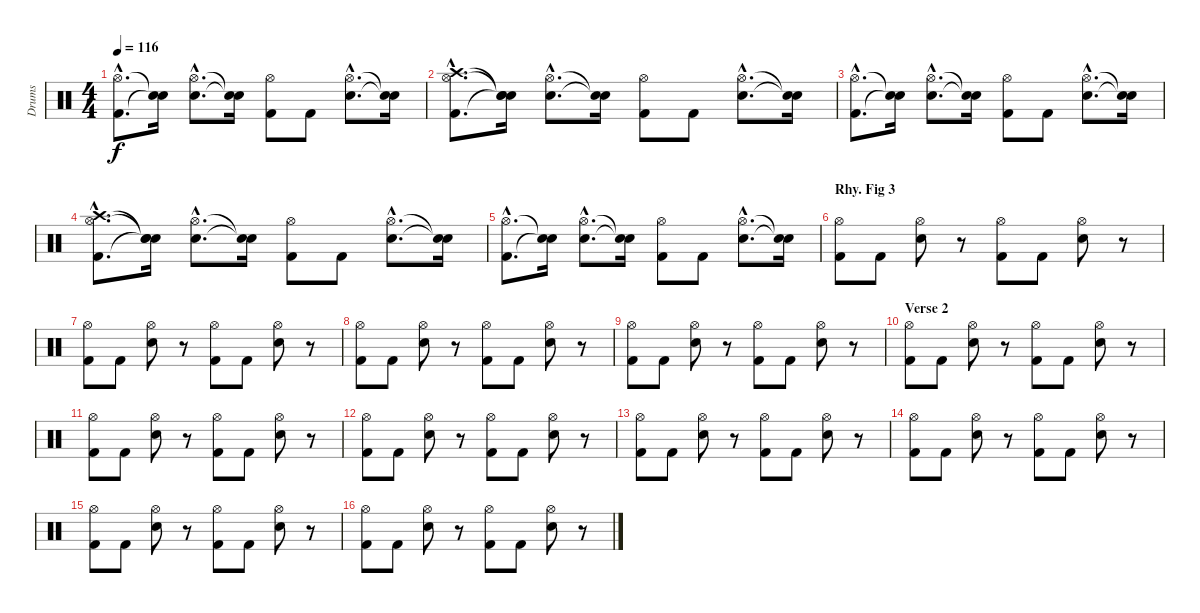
\track ("Drums" "Drums") {instrument percussion}
\staff {score}
\articulation defaults
\ts (4 4)
\tempo 116
\clef neutral
\ks c
("Kick (hit) 2"{hac} "Hi-Hat (open)"{hac}).8{d dy f} ("Snare (hit)"{t} "Snare (hit)"{t}).16 ("Snare (hit) 2"{hac} "Hi-Hat (open)"{hac}).8{d} ("Snare (hit)"{t} "Snare (hit)"{t}).16 ("Kick (hit) 2" "Hi-Hat (open)").8 "Kick (hit) 2".8 ("Snare (hit) 2"{hac} "Hi-Hat (open)"{hac}).8{d} ("Snare (hit)"{t} "Snare (hit)"{t}).16 |
("Kick (hit) 2"{hac} "Hi-Hat (open)"{hac} "Crash high (hit)"{hac}).8{d} ("Snare (hit)"{t} "Snare (hit)"{t} "Snare (hit)"{t}).16 ("Snare (hit) 2"{hac} "Hi-Hat (open)"{hac}).8{d} ("Snare (hit)"{t} "Snare (hit)"{t}).16 ("Kick (hit) 2" "Hi-Hat (open)").8 "Kick (hit) 2".8 ("Snare (hit) 2"{hac} "Hi-Hat (open)"{hac}).8{d} ("Snare (hit)"{t} "Snare (hit)"{t}).16 |
("Kick (hit) 2"{hac} "Hi-Hat (open)"{hac}).8{d} ("Snare (hit)"{t} "Snare (hit)"{t}).16 ("Snare (hit) 2"{hac} "Hi-Hat (open)"{hac}).8{d} ("Snare (hit)"{t} "Snare (hit)"{t}).16 ("Kick (hit) 2" "Hi-Hat (open)").8 "Kick (hit) 2".8 ("Snare (hit) 2"{hac} "Hi-Hat (open)"{hac}).8{d} ("Snare (hit)"{t} "Snare (hit)"{t}).16 |
("Kick (hit) 2"{hac} "Hi-Hat (open)"{hac} "Crash high (hit)"{hac}).8{d} ("Snare (hit)"{t} "Snare (hit)"{t} "Snare (hit)"{t}).16 ("Snare (hit) 2"{hac} "Hi-Hat (open)"{hac}).8{d} ("Snare (hit)"{t} "Snare (hit)"{t}).16 ("Kick (hit) 2" "Hi-Hat (open)").8 "Kick (hit) 2".8 ("Snare (hit) 2"{hac} "Hi-Hat (open)"{hac}).8{d} ("Snare (hit)"{t} "Snare (hit)"{t}).16 |
("Kick (hit) 2"{hac} "Hi-Hat (open)"{hac}).8{d} ("Snare (hit)"{t} "Snare (hit)"{t}).16 ("Snare (hit) 2"{hac} "Hi-Hat (open)"{hac}).8{d} ("Snare (hit)"{t} "Snare (hit)"{t}).16 ("Kick (hit) 2" "Hi-Hat (open)").8 "Kick (hit) 2".8 ("Snare (hit) 2"{hac} "Hi-Hat (open)"{hac}).8{d} ("Snare (hit)"{t} "Snare (hit)"{t}).16 |
\section ("" "Rhy. Fig 3")
("Kick (hit) 2" "Hi-Hat (open)").8 "Kick (hit) 2".8 ("Snare (hit) 2" "Hi-Hat (open)").8 r.8 ("Kick (hit) 2" "Hi-Hat (open)").8 "Kick (hit) 2".8 ("Snare (hit) 2" "Hi-Hat (open)").8 r.8 |
("Kick (hit) 2" "Hi-Hat (open)").8 "Kick (hit) 2".8 ("Snare (hit) 2" "Hi-Hat (open)").8 r.8 ("Kick (hit) 2" "Hi-Hat (open)").8 "Kick (hit) 2".8 ("Snare (hit) 2" "Hi-Hat (open)").8 r.8 |
("Kick (hit) 2" "Hi-Hat (open)").8 "Kick (hit) 2".8 ("Snare (hit) 2" "Hi-Hat (open)").8 r.8 ("Kick (hit) 2" "Hi-Hat (open)").8 "Kick (hit) 2".8 ("Snare (hit) 2" "Hi-Hat (open)").8 r.8 |
("Kick (hit) 2" "Hi-Hat (open)").8 "Kick (hit) 2".8 ("Snare (hit) 2" "Hi-Hat (open)").8 r.8 ("Kick (hit) 2" "Hi-Hat (open)").8 "Kick (hit) 2".8 ("Snare (hit) 2" "Hi-Hat (open)").8 r.8 |
\section ("" "Verse 2")
("Kick (hit) 2" "Hi-Hat (open)").8 "Kick (hit) 2".8 ("Snare (hit) 2" "Hi-Hat (open)").8 r.8 ("Kick (hit) 2" "Hi-Hat (open)").8 "Kick (hit) 2".8 ("Snare (hit) 2" "Hi-Hat (open)").8 r.8 |
("Kick (hit) 2" "Hi-Hat (open)").8 "Kick (hit) 2".8 ("Snare (hit) 2" "Hi-Hat (open)").8 r.8 ("Kick (hit) 2" "Hi-Hat (open)").8 "Kick (hit) 2".8 ("Snare (hit) 2" "Hi-Hat (open)").8 r.8 |
("Kick (hit) 2" "Hi-Hat (open)").8 "Kick (hit) 2".8 ("Snare (hit) 2" "Hi-Hat (open)").8 r.8 ("Kick (hit) 2" "Hi-Hat (open)").8 "Kick (hit) 2".8 ("Snare (hit) 2" "Hi-Hat (open)").8 r.8 |
("Kick (hit) 2" "Hi-Hat (open)").8 "Kick (hit) 2".8 ("Snare (hit) 2" "Hi-Hat (open)").8 r.8 ("Kick (hit) 2" "Hi-Hat (open)").8 "Kick (hit) 2".8 ("Snare (hit) 2" "Hi-Hat (open)").8 r.8 |
("Kick (hit) 2" "Hi-Hat (open)").8 "Kick (hit) 2".8 ("Snare (hit) 2" "Hi-Hat (open)").8 r.8 ("Kick (hit) 2" "Hi-Hat (open)").8 "Kick (hit) 2".8 ("Snare (hit) 2" "Hi-Hat (open)").8 r.8 |
("Kick (hit) 2" "Hi-Hat (open)").8 "Kick (hit) 2".8 ("Snare (hit) 2" "Hi-Hat (open)").8 r.8 ("Kick (hit) 2" "Hi-Hat (open)").8 "Kick (hit) 2".8 ("Snare (hit) 2" "Hi-Hat (open)").8 r.8 |
("Kick (hit) 2" "Hi-Hat (open)").8 "Kick (hit) 2".8 ("Snare (hit) 2" "Hi-Hat (open)").8 r.8 ("Kick (hit) 2" "Hi-Hat (open)").8 "Kick (hit) 2".8 ("Snare (hit) 2" "Hi-Hat (open)").8 r.8
